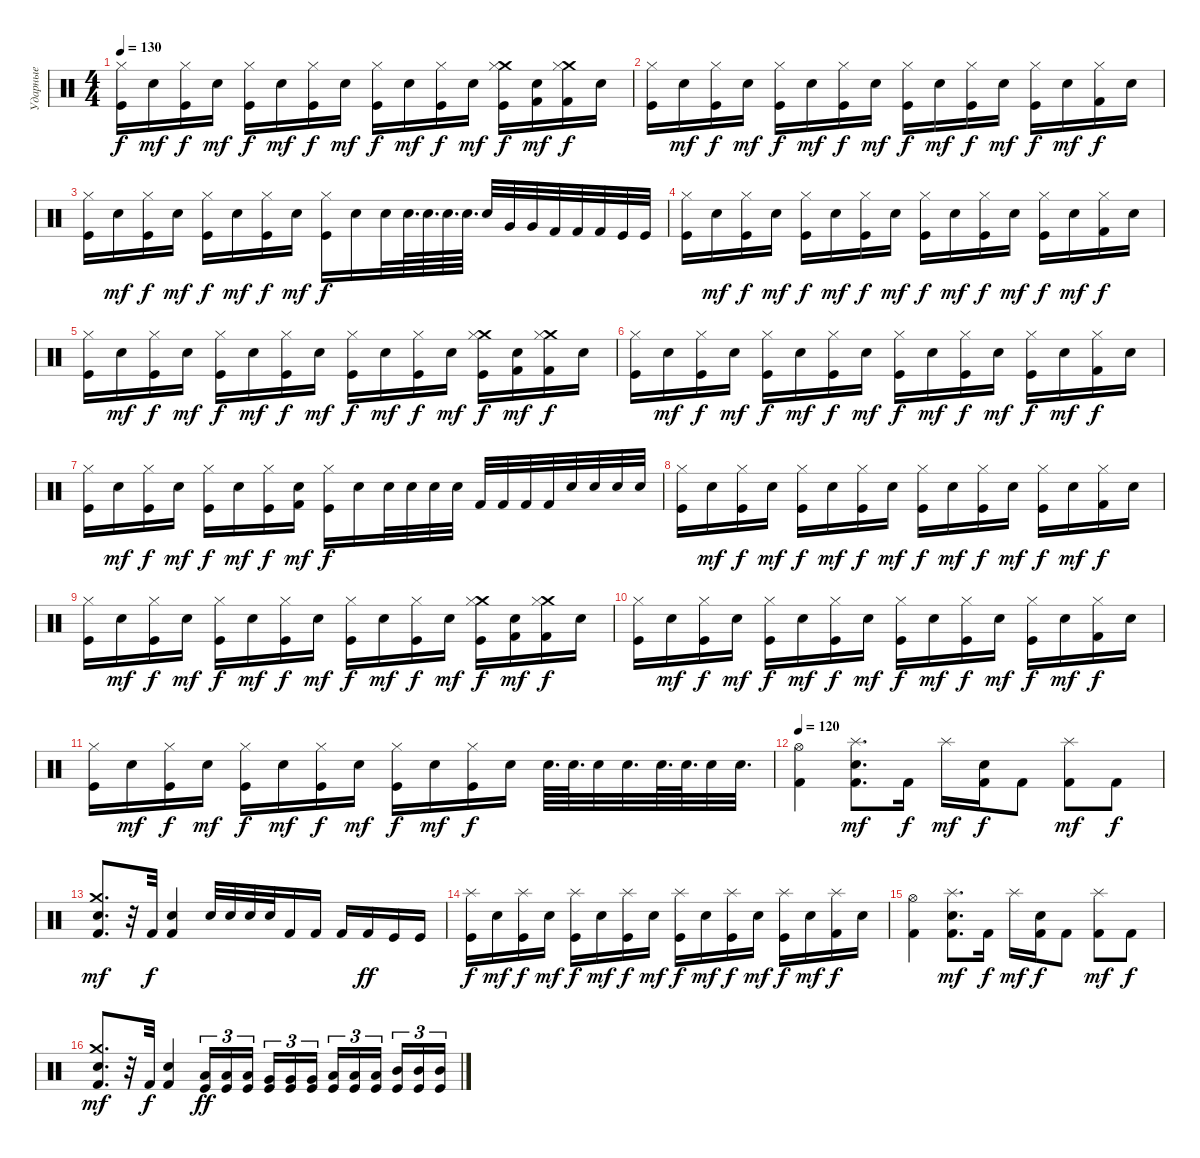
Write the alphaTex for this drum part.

\track ("Ударные" "Ударные") {instrument percussion}
\staff {score}
\articulation defaults
\ts (4 4)
\tempo 130
\clef neutral
\ks c
("Hi-Hat (closed)" "Kick (hit)").16{dy f} "Electric Snare (hit)".16{dy mf} ("Hi-Hat (closed)" "Kick (hit)").16{dy f} "Electric Snare (hit)".16{dy mf} ("Hi-Hat (closed)" "Kick (hit)").16{dy f} "Electric Snare (hit)".16{dy mf} ("Hi-Hat (closed)" "Kick (hit)").16{dy f} "Electric Snare (hit)".16{dy mf} ("Hi-Hat (closed)" "Kick (hit)").16{dy f} "Electric Snare (hit)".16{dy mf} ("Hi-Hat (closed)" "Kick (hit)").16{dy f} "Electric Snare (hit)".16{dy mf} ("Crash medium (hit)" "Hi-Hat (closed)" "Kick (hit)").16{dy f} ("Electric Snare (hit)" "Kick (hit) 2").16{dy mf} ("Crash medium (hit)" "Hi-Hat (closed)" "Kick (hit) 2").16{dy f} "Electric Snare (hit)".16 |
("Hi-Hat (closed)" "Kick (hit)").16 "Electric Snare (hit)".16{dy mf} ("Hi-Hat (closed)" "Kick (hit)").16{dy f} "Electric Snare (hit)".16{dy mf} ("Hi-Hat (closed)" "Kick (hit)").16{dy f} "Electric Snare (hit)".16{dy mf} ("Hi-Hat (closed)" "Kick (hit)").16{dy f} "Electric Snare (hit)".16{dy mf} ("Hi-Hat (closed)" "Kick (hit)").16{dy f} "Electric Snare (hit)".16{dy mf} ("Hi-Hat (closed)" "Kick (hit)").16{dy f} "Electric Snare (hit)".16{dy mf} ("Hi-Hat (closed)" "Kick (hit)").16{dy f} "Electric Snare (hit)".16{dy mf} ("Hi-Hat (closed)" "Kick (hit) 2").16{dy f} "Electric Snare (hit)".16 |
("Hi-Hat (closed)" "Kick (hit)").16 "Electric Snare (hit)".16{dy mf} ("Hi-Hat (closed)" "Kick (hit)").16{dy f} "Electric Snare (hit)".16{dy mf} ("Hi-Hat (closed)" "Kick (hit)").16{dy f} "Electric Snare (hit)".16{dy mf} ("Hi-Hat (closed)" "Kick (hit)").16{dy f} "Electric Snare (hit)".16{dy mf} ("Hi-Hat (closed)" "Kick (hit)").16{dy f} "Electric Snare (hit)".16 "Snare (hit) 2".32 "Snare (hit) 2".64{d} "Snare (hit) 2".64{d} "Electric Snare (hit)".64{d} "Electric Snare (hit)".64{d} "Electric Snare (hit)".32 "Very Low Tom (hit)".32 "Very Low Tom (hit)".32 "Kick (hit) 2".32 "Kick (hit) 2".32 "Kick (hit) 2".32 "Kick (hit)".32 "Kick (hit)".32 |
("Hi-Hat (closed)" "Kick (hit)").16 "Electric Snare (hit)".16{dy mf} ("Hi-Hat (closed)" "Kick (hit)").16{dy f} "Electric Snare (hit)".16{dy mf} ("Hi-Hat (closed)" "Kick (hit)").16{dy f} "Electric Snare (hit)".16{dy mf} ("Hi-Hat (closed)" "Kick (hit)").16{dy f} "Electric Snare (hit)".16{dy mf} ("Hi-Hat (closed)" "Kick (hit)").16{dy f} "Electric Snare (hit)".16{dy mf} ("Hi-Hat (closed)" "Kick (hit)").16{dy f} "Electric Snare (hit)".16{dy mf} ("Hi-Hat (closed)" "Kick (hit)").16{dy f} "Electric Snare (hit)".16{dy mf} ("Hi-Hat (closed)" "Kick (hit) 2").16{dy f} "Electric Snare (hit)".16 |
("Hi-Hat (closed)" "Kick (hit)").16 "Electric Snare (hit)".16{dy mf} ("Hi-Hat (closed)" "Kick (hit)").16{dy f} "Electric Snare (hit)".16{dy mf} ("Hi-Hat (closed)" "Kick (hit)").16{dy f} "Electric Snare (hit)".16{dy mf} ("Hi-Hat (closed)" "Kick (hit)").16{dy f} "Electric Snare (hit)".16{dy mf} ("Hi-Hat (closed)" "Kick (hit)").16{dy f} "Electric Snare (hit)".16{dy mf} ("Hi-Hat (closed)" "Kick (hit)").16{dy f} "Electric Snare (hit)".16{dy mf} ("Crash medium (hit)" "Hi-Hat (closed)" "Kick (hit)").16{dy f} ("Electric Snare (hit)" "Kick (hit) 2").16{dy mf} ("Crash medium (hit)" "Hi-Hat (closed)" "Kick (hit) 2").16{dy f} "Electric Snare (hit)".16 |
("Hi-Hat (closed)" "Kick (hit)").16 "Electric Snare (hit)".16{dy mf} ("Hi-Hat (closed)" "Kick (hit)").16{dy f} "Electric Snare (hit)".16{dy mf} ("Hi-Hat (closed)" "Kick (hit)").16{dy f} "Electric Snare (hit)".16{dy mf} ("Hi-Hat (closed)" "Kick (hit)").16{dy f} "Electric Snare (hit)".16{dy mf} ("Hi-Hat (closed)" "Kick (hit)").16{dy f} "Electric Snare (hit)".16{dy mf} ("Hi-Hat (closed)" "Kick (hit)").16{dy f} "Electric Snare (hit)".16{dy mf} ("Hi-Hat (closed)" "Kick (hit)").16{dy f} "Electric Snare (hit)".16{dy mf} ("Hi-Hat (closed)" "Kick (hit) 2").16{dy f} "Electric Snare (hit)".16 |
("Hi-Hat (closed)" "Kick (hit)").16 "Electric Snare (hit)".16{dy mf} ("Hi-Hat (closed)" "Kick (hit)").16{dy f} "Electric Snare (hit)".16{dy mf} ("Hi-Hat (closed)" "Kick (hit)").16{dy f} "Electric Snare (hit)".16{dy mf} ("Hi-Hat (closed)" "Kick (hit)").16{dy f} ("Electric Snare (hit)" "Kick (hit) 2").16{dy mf} ("Hi-Hat (closed)" "Kick (hit)").16{dy f} "Electric Snare (hit)".16 "Snare (hit) 2".32 "Snare (hit) 2".32 "Snare (hit) 2".32 "Snare (hit) 2".32 "Kick (hit) 2".32 "Kick (hit) 2".32 "Kick (hit) 2".32 "Kick (hit) 2".32 "Electric Snare (hit)".32 "Electric Snare (hit)".32 "Electric Snare (hit)".32 "Electric Snare (hit)".32 |
("Hi-Hat (closed)" "Kick (hit)").16 "Electric Snare (hit)".16{dy mf} ("Hi-Hat (closed)" "Kick (hit)").16{dy f} "Electric Snare (hit)".16{dy mf} ("Hi-Hat (closed)" "Kick (hit)").16{dy f} "Electric Snare (hit)".16{dy mf} ("Hi-Hat (closed)" "Kick (hit)").16{dy f} "Electric Snare (hit)".16{dy mf} ("Hi-Hat (closed)" "Kick (hit)").16{dy f} "Electric Snare (hit)".16{dy mf} ("Hi-Hat (closed)" "Kick (hit)").16{dy f} "Electric Snare (hit)".16{dy mf} ("Hi-Hat (closed)" "Kick (hit)").16{dy f} "Electric Snare (hit)".16{dy mf} ("Hi-Hat (closed)" "Kick (hit) 2").16{dy f} "Electric Snare (hit)".16 |
("Hi-Hat (closed)" "Kick (hit)").16 "Electric Snare (hit)".16{dy mf} ("Hi-Hat (closed)" "Kick (hit)").16{dy f} "Electric Snare (hit)".16{dy mf} ("Hi-Hat (closed)" "Kick (hit)").16{dy f} "Electric Snare (hit)".16{dy mf} ("Hi-Hat (closed)" "Kick (hit)").16{dy f} "Electric Snare (hit)".16{dy mf} ("Hi-Hat (closed)" "Kick (hit)").16{dy f} "Electric Snare (hit)".16{dy mf} ("Hi-Hat (closed)" "Kick (hit)").16{dy f} "Electric Snare (hit)".16{dy mf} ("Crash medium (hit)" "Hi-Hat (closed)" "Kick (hit)").16{dy f} ("Electric Snare (hit)" "Kick (hit) 2").16{dy mf} ("Crash medium (hit)" "Hi-Hat (closed)" "Kick (hit) 2").16{dy f} "Electric Snare (hit)".16 |
("Hi-Hat (closed)" "Kick (hit)").16 "Electric Snare (hit)".16{dy mf} ("Hi-Hat (closed)" "Kick (hit)").16{dy f} "Electric Snare (hit)".16{dy mf} ("Hi-Hat (closed)" "Kick (hit)").16{dy f} "Electric Snare (hit)".16{dy mf} ("Hi-Hat (closed)" "Kick (hit)").16{dy f} "Electric Snare (hit)".16{dy mf} ("Hi-Hat (closed)" "Kick (hit)").16{dy f} "Electric Snare (hit)".16{dy mf} ("Hi-Hat (closed)" "Kick (hit)").16{dy f} "Electric Snare (hit)".16{dy mf} ("Hi-Hat (closed)" "Kick (hit)").16{dy f} "Electric Snare (hit)".16{dy mf} ("Hi-Hat (closed)" "Kick (hit) 2").16{dy f} "Electric Snare (hit)".16 |
("Hi-Hat (closed)" "Kick (hit)").16 "Electric Snare (hit)".16{dy mf} ("Hi-Hat (closed)" "Kick (hit)").16{dy f} "Electric Snare (hit)".16{dy mf} ("Hi-Hat (closed)" "Kick (hit)").16{dy f} "Electric Snare (hit)".16{dy mf} ("Hi-Hat (closed)" "Kick (hit)").16{dy f} "Electric Snare (hit)".16{dy mf} ("Hi-Hat (closed)" "Kick (hit)").16{dy f} "Electric Snare (hit)".16{dy mf} ("Hi-Hat (closed)" "Kick (hit)").16{dy f} "Electric Snare (hit)".16 "Electric Snare (hit)".64{d} "Electric Snare (hit)".64{d} "Electric Snare (hit)".32 "Snare (hit) 2".32{d} "Electric Snare (hit)".64{d} "Electric Snare (hit)".64{d} "Electric Snare (hit)".32 "Snare (hit) 2".32{d} |
\tempo 120
("Hi-Hat (open)" "Kick (hit) 2").4 ("Splash (hit)" "Electric Snare (hit)" "Kick (hit) 2").8{d dy mf} "Kick (hit) 2".16{dy f} "Splash (hit)".16{dy mf} ("Electric Snare (hit)" "Kick (hit) 2").16{dy f} "Kick (hit) 2".8 ("Splash (hit)" "Kick (hit) 2").8{dy mf} "Kick (hit) 2".8{dy f} |
("Crash medium (hit)" "Electric Snare (hit)" "Kick (hit) 2").8{d dy mf} r.32 "Kick (hit) 2".32{dy f} ("Electric Snare (hit)" "Kick (hit) 2").4 "Electric Snare (hit)".32 "Electric Snare (hit)".32 "Snare (hit) 2".32 "Snare (hit) 2".32 "Kick (hit) 2".16 "Kick (hit) 2".16 "Kick (hit) 2".16 "Kick (hit) 2".16{dy ff} "Kick (hit)".16 "Kick (hit)".16 |
("Splash (hit)" "Kick (hit)").16{dy f} "Electric Snare (hit)".16{dy mf} ("Splash (hit)" "Kick (hit)").16{dy f} "Electric Snare (hit)".16{dy mf} ("Splash (hit)" "Kick (hit)").16{dy f} "Electric Snare (hit)".16{dy mf} ("Splash (hit)" "Kick (hit)").16{dy f} "Electric Snare (hit)".16{dy mf} ("Splash (hit)" "Kick (hit)").16{dy f} "Electric Snare (hit)".16{dy mf} ("Splash (hit)" "Kick (hit)").16{dy f} "Electric Snare (hit)".16{dy mf} ("Splash (hit)" "Kick (hit)").16{dy f} "Electric Snare (hit)".16{dy mf} ("Splash (hit)" "Kick (hit) 2").16{dy f} "Electric Snare (hit)".16 |
("Hi-Hat (open)" "Kick (hit) 2").4 ("Splash (hit)" "Electric Snare (hit)" "Kick (hit) 2").8{d dy mf} "Kick (hit) 2".16{dy f} "Splash (hit)".16{dy mf} ("Electric Snare (hit)" "Kick (hit) 2").16{dy f} "Kick (hit) 2".8 ("Splash (hit)" "Kick (hit) 2").8{dy mf} "Kick (hit) 2".8{dy f} |
("Crash medium (hit)" "Electric Snare (hit)" "Kick (hit) 2").8{d dy mf} r.32 "Kick (hit) 2".32{dy f} ("Electric Snare (hit)" "Kick (hit) 2").4 ("Kick (hit)" "Low Floor Tom (hit)").16{tu (3 2) dy ff} ("Kick (hit)" "Low Floor Tom (hit)").16{tu (3 2)} ("Kick (hit)" "Low Floor Tom (hit)").16{tu (3 2) beam splitsecondary} ("Kick (hit)" "Very Low Tom (hit)").16{tu (3 2)} ("Kick (hit)" "Very Low Tom (hit)").16{tu (3 2)} ("Kick (hit)" "Very Low Tom (hit)").16{tu (3 2)} ("Kick (hit)" "Low Tom (hit)").16{tu (3 2)} ("Kick (hit)" "Low Tom (hit)").16{tu (3 2)} ("Kick (hit)" "Low Tom (hit)").16{tu (3 2) beam splitsecondary} ("Kick (hit)" "Mid Tom (hit)").16{tu (3 2)} ("Kick (hit)" "Mid Tom (hit)").16{tu (3 2)} ("Kick (hit)" "Mid Tom (hit)").16{tu (3 2)}
